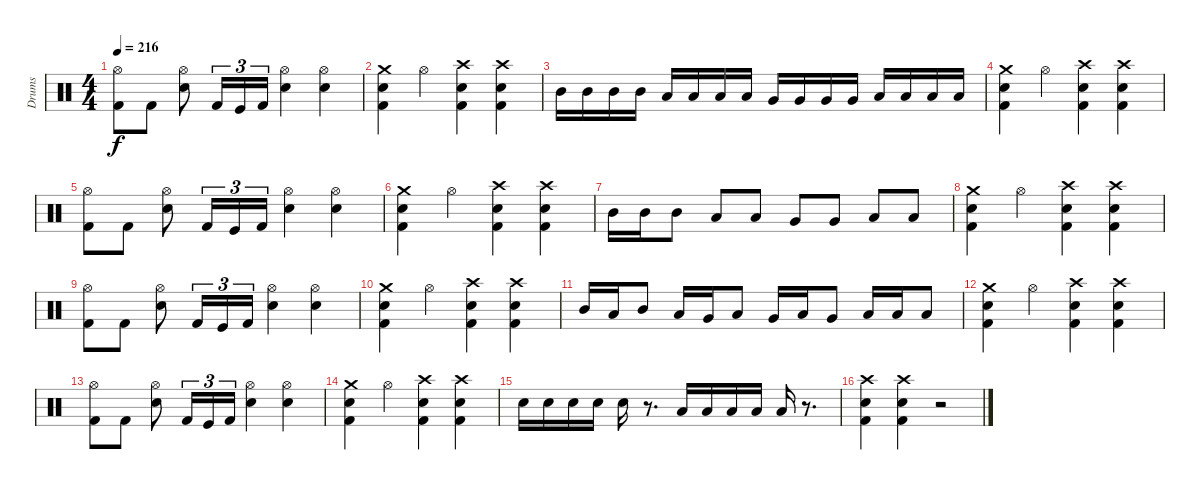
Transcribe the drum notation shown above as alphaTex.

\track ("Drums" "Drums") {instrument percussion}
\staff {score}
\articulation defaults
\ts (4 4)
\tempo 216
\clef neutral
\ks c
("Hi-Hat (open)" "Kick (hit) 2").8{dy f} "Kick (hit) 2".8 ("Hi-Hat (open)" "Snare (hit) 2").8 "Kick (hit) 2".16{tu (3 2)} "Kick (hit)".16{tu (3 2)} "Kick (hit) 2".16{tu (3 2)} ("Hi-Hat (open)" "Snare (hit) 2").4 ("Hi-Hat (open)" "Snare (hit) 2").4 |
("Crash medium (hit)" "Snare (hit) 2" "Kick (hit) 2").4 "Hi-Hat (open)".4 ("Crash high (hit)" "Snare (hit) 2" "Kick (hit) 2").4 ("Crash high (hit)" "Snare (hit) 2" "Kick (hit) 2").4 |
"Mid Tom (hit)".16 "Mid Tom (hit)".16 "Mid Tom (hit)".16 "Mid Tom (hit)".16 "Low Tom (hit)".16 "Low Tom (hit)".16 "Low Tom (hit)".16 "Low Tom (hit)".16 "Very Low Tom (hit)".16 "Very Low Tom (hit)".16 "Very Low Tom (hit)".16 "Very Low Tom (hit)".16 "Low Floor Tom (hit)".16 "Low Floor Tom (hit)".16 "Low Floor Tom (hit)".16 "Low Floor Tom (hit)".16 |
("Crash medium (hit)" "Snare (hit) 2" "Kick (hit) 2").4 "Hi-Hat (open)".4 ("Crash high (hit)" "Snare (hit) 2" "Kick (hit) 2").4 ("Crash high (hit)" "Snare (hit) 2" "Kick (hit) 2").4 |
("Hi-Hat (open)" "Kick (hit) 2").8 "Kick (hit) 2".8 ("Hi-Hat (open)" "Snare (hit) 2").8 "Kick (hit) 2".16{tu (3 2)} "Kick (hit)".16{tu (3 2)} "Kick (hit) 2".16{tu (3 2)} ("Hi-Hat (open)" "Snare (hit) 2").4 ("Hi-Hat (open)" "Snare (hit) 2").4 |
("Crash medium (hit)" "Snare (hit) 2" "Kick (hit) 2").4 "Hi-Hat (open)".4 ("Crash high (hit)" "Snare (hit) 2" "Kick (hit) 2").4 ("Crash high (hit)" "Snare (hit) 2" "Kick (hit) 2").4 |
"Mid Tom (hit)".16 "Mid Tom (hit)".16 "Mid Tom (hit)".8 "Low Tom (hit)".8 "Low Tom (hit)".8 "Very Low Tom (hit)".8 "Very Low Tom (hit)".8 "Low Floor Tom (hit)".8 "Low Floor Tom (hit)".8 |
("Crash medium (hit)" "Snare (hit) 2" "Kick (hit) 2").4 "Hi-Hat (open)".4 ("Crash high (hit)" "Snare (hit) 2" "Kick (hit) 2").4 ("Crash high (hit)" "Snare (hit) 2" "Kick (hit) 2").4 |
("Hi-Hat (open)" "Kick (hit) 2").8 "Kick (hit) 2".8 ("Hi-Hat (open)" "Snare (hit) 2").8 "Kick (hit) 2".16{tu (3 2)} "Kick (hit)".16{tu (3 2)} "Kick (hit) 2".16{tu (3 2)} ("Hi-Hat (open)" "Snare (hit) 2").4 ("Hi-Hat (open)" "Snare (hit) 2").4 |
("Crash medium (hit)" "Snare (hit) 2" "Kick (hit) 2").4 "Hi-Hat (open)".4 ("Crash high (hit)" "Snare (hit) 2" "Kick (hit) 2").4 ("Crash high (hit)" "Snare (hit) 2" "Kick (hit) 2").4 |
"Mid Tom (hit)".16 "Low Tom (hit)".16 "Mid Tom (hit)".8 "Low Tom (hit)".16 "Very Low Tom (hit)".16 "Low Tom (hit)".8 "Very Low Tom (hit)".16 "Low Floor Tom (hit)".16 "Very Low Tom (hit)".8 "Low Floor Tom (hit)".16 "Low Floor Tom (hit)".16 "Low Floor Tom (hit)".8 |
("Crash medium (hit)" "Snare (hit) 2" "Kick (hit) 2").4 "Hi-Hat (open)".4 ("Crash high (hit)" "Snare (hit) 2" "Kick (hit) 2").4 ("Crash high (hit)" "Snare (hit) 2" "Kick (hit) 2").4 |
("Hi-Hat (open)" "Kick (hit) 2").8 "Kick (hit) 2".8 ("Hi-Hat (open)" "Snare (hit) 2").8 "Kick (hit) 2".16{tu (3 2)} "Kick (hit)".16{tu (3 2)} "Kick (hit) 2".16{tu (3 2)} ("Hi-Hat (open)" "Snare (hit) 2").4 ("Hi-Hat (open)" "Snare (hit) 2").4 |
("Crash medium (hit)" "Snare (hit) 2" "Kick (hit) 2").4 "Hi-Hat (open)".4 ("Crash high (hit)" "Snare (hit) 2" "Kick (hit) 2").4 ("Crash high (hit)" "Snare (hit) 2" "Kick (hit) 2").4 |
"Snare (hit) 2".16 "Snare (hit) 2".16 "Snare (hit) 2".16 "Snare (hit) 2".16 "Snare (hit) 2".16 r.8{d} "Low Tom (hit)".16 "Low Tom (hit)".16 "Low Tom (hit)".16 "Low Tom (hit)".16 "Low Tom (hit)".16 r.8{d} |
("Crash high (hit)" "Snare (hit) 2" "Kick (hit) 2").4 ("Crash high (hit)" "Snare (hit) 2" "Kick (hit) 2").4 r.2
